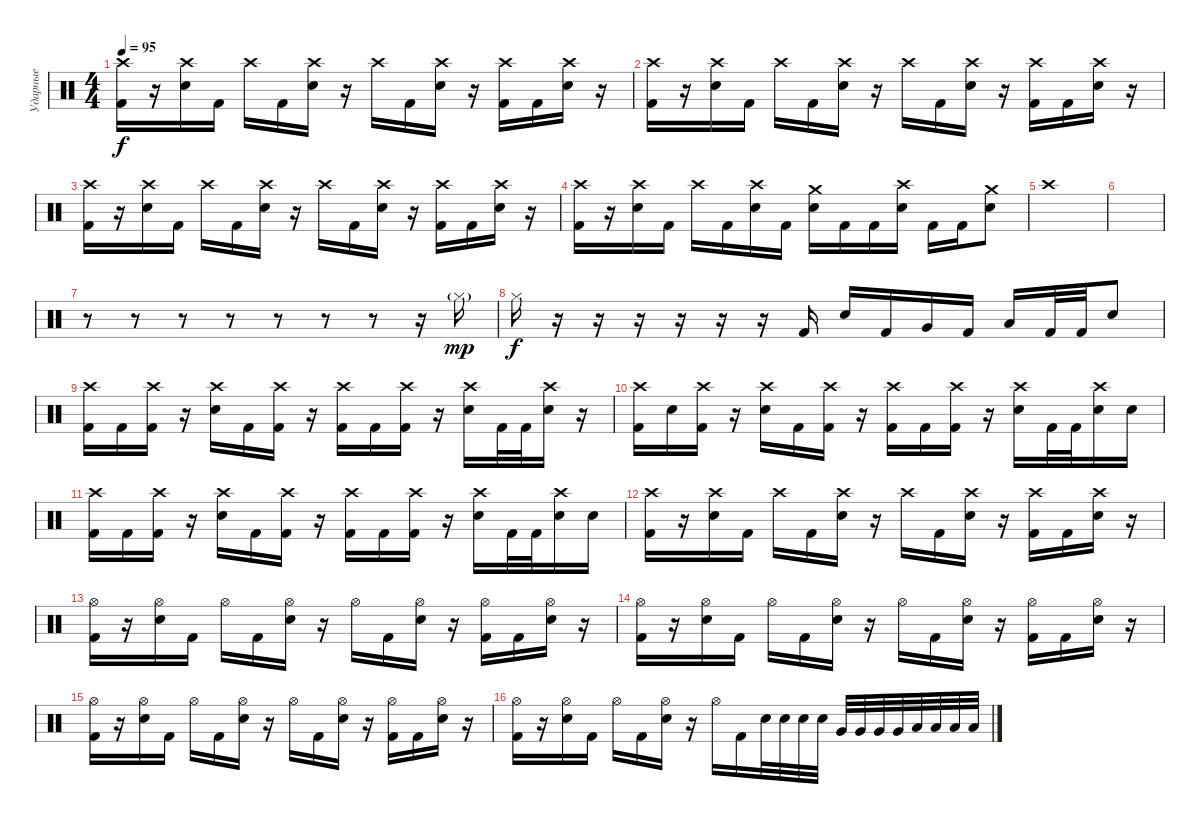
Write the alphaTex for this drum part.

\track ("Ударные" "Ударные") {instrument percussion}
\staff {score}
\articulation defaults
\ts (4 4)
\tempo 95
\clef neutral
\ks c
("Crash high (hit)" "Kick (hit) 2").16{dy f} r.16 ("Crash high (hit)" "Electric Snare (hit)").16 "Kick (hit) 2".16 "Crash high (hit)".16 "Kick (hit) 2".16 ("Crash high (hit)" "Electric Snare (hit)").16 r.16 "Crash high (hit)".16 "Kick (hit) 2".16 ("Crash high (hit)" "Electric Snare (hit)").16 r.16 ("Crash high (hit)" "Kick (hit) 2").16 "Kick (hit) 2".16 ("Crash high (hit)" "Electric Snare (hit)").16 r.16 |
("Crash high (hit)" "Kick (hit) 2").16 r.16 ("Crash high (hit)" "Electric Snare (hit)").16 "Kick (hit) 2".16 "Crash high (hit)".16 "Kick (hit) 2".16 ("Crash high (hit)" "Electric Snare (hit)").16 r.16 "Crash high (hit)".16 "Kick (hit) 2".16 ("Crash high (hit)" "Electric Snare (hit)").16 r.16 ("Crash high (hit)" "Kick (hit) 2").16 "Kick (hit) 2".16 ("Crash high (hit)" "Electric Snare (hit)").16 r.16 |
("Crash high (hit)" "Kick (hit) 2").16 r.16 ("Crash high (hit)" "Electric Snare (hit)").16 "Kick (hit) 2".16 "Crash high (hit)".16 "Kick (hit) 2".16 ("Crash high (hit)" "Electric Snare (hit)").16 r.16 "Crash high (hit)".16 "Kick (hit) 2".16 ("Crash high (hit)" "Electric Snare (hit)").16 r.16 ("Crash high (hit)" "Kick (hit) 2").16 "Kick (hit) 2".16 ("Crash high (hit)" "Electric Snare (hit)").16 r.16 |
("Crash high (hit)" "Kick (hit) 2").16 r.16 ("Crash high (hit)" "Electric Snare (hit)").16 "Kick (hit) 2".16 "Crash high (hit)".16 "Kick (hit) 2".16 ("Crash high (hit)" "Electric Snare (hit)").16 "Kick (hit) 2".16 ("Crash medium (hit)" "Electric Snare (hit)").16 "Kick (hit) 2".16 "Kick (hit) 2".16 ("Crash high (hit)" "Electric Snare (hit)").16 "Kick (hit) 2".16 "Kick (hit) 2".16 ("Crash medium (hit)" "Electric Snare (hit)").8 |
"Crash high (hit)".1 |
|
r.8 r.8 r.8 r.8 r.8 r.8 r.8 r.16 "Hi-Hat (closed)"{g}.16{dy mp} |
"Hi-Hat (closed)".16{dy f} r.16 r.16 r.16 r.16 r.16 r.16 "Kick (hit) 2".16 "Electric Snare (hit)".16 "Kick (hit) 2".16 "Very Low Tom (hit)".16 "Kick (hit) 2".16 "Low Floor Tom (hit)".16 "Kick (hit) 2".32 "Kick (hit) 2".32 "Electric Snare (hit)".8 |
("Crash high (hit)" "Kick (hit) 2").16 "Kick (hit) 2".16 ("Crash high (hit)" "Kick (hit) 2").16 r.16 ("Crash high (hit)" "Electric Snare (hit)").16 "Kick (hit) 2".16 ("Crash high (hit)" "Kick (hit) 2").16 r.16 ("Crash high (hit)" "Kick (hit) 2").16 "Kick (hit) 2".16 ("Crash high (hit)" "Kick (hit) 2").16 r.16 ("Crash high (hit)" "Electric Snare (hit)").16 "Kick (hit) 2".32 "Kick (hit) 2".32 ("Crash high (hit)" "Electric Snare (hit)").16 r.16 |
("Crash high (hit)" "Kick (hit) 2").16 "Electric Snare (hit)".16 ("Crash high (hit)" "Kick (hit) 2").16 r.16 ("Crash high (hit)" "Electric Snare (hit)").16 "Kick (hit) 2".16 ("Crash high (hit)" "Kick (hit) 2").16 r.16 ("Crash high (hit)" "Kick (hit) 2").16 "Kick (hit) 2".16 ("Crash high (hit)" "Kick (hit) 2").16 r.16 ("Crash high (hit)" "Electric Snare (hit)").16 "Kick (hit) 2".32 "Kick (hit) 2".32 ("Crash high (hit)" "Electric Snare (hit)").16 "Electric Snare (hit)".16 |
("Crash high (hit)" "Kick (hit) 2").16 "Kick (hit) 2".16 ("Crash high (hit)" "Kick (hit) 2").16 r.16 ("Crash high (hit)" "Electric Snare (hit)").16 "Kick (hit) 2".16 ("Crash high (hit)" "Kick (hit) 2").16 r.16 ("Crash high (hit)" "Kick (hit) 2").16 "Kick (hit) 2".16 ("Crash high (hit)" "Kick (hit) 2").16 r.16 ("Crash high (hit)" "Electric Snare (hit)").16 "Kick (hit) 2".32 "Kick (hit) 2".32 ("Crash high (hit)" "Electric Snare (hit)").16 "Electric Snare (hit)".16 |
("Crash high (hit)" "Kick (hit) 2").16 r.16 ("Crash high (hit)" "Electric Snare (hit)").16 "Kick (hit) 2".16 "Crash high (hit)".16 "Kick (hit) 2".16 ("Crash high (hit)" "Electric Snare (hit)").16 r.16 "Crash high (hit)".16 "Kick (hit) 2".16 ("Crash high (hit)" "Electric Snare (hit)").16 r.16 ("Crash high (hit)" "Kick (hit) 2").16 "Kick (hit) 2".16 ("Crash high (hit)" "Electric Snare (hit)").16 r.16 |
("Hi-Hat (open)" "Kick (hit) 2").16 r.16 ("Hi-Hat (open)" "Electric Snare (hit)").16 "Kick (hit) 2".16 "Hi-Hat (open)".16 "Kick (hit) 2".16 ("Hi-Hat (open)" "Electric Snare (hit)").16 r.16 "Hi-Hat (open)".16 "Kick (hit) 2".16 ("Hi-Hat (open)" "Electric Snare (hit)").16 r.16 ("Hi-Hat (open)" "Kick (hit) 2").16 "Kick (hit) 2".16 ("Hi-Hat (open)" "Electric Snare (hit)").16 r.16 |
("Hi-Hat (open)" "Kick (hit) 2").16 r.16 ("Hi-Hat (open)" "Electric Snare (hit)").16 "Kick (hit) 2".16 "Hi-Hat (open)".16 "Kick (hit) 2".16 ("Hi-Hat (open)" "Electric Snare (hit)").16 r.16 "Hi-Hat (open)".16 "Kick (hit) 2".16 ("Hi-Hat (open)" "Electric Snare (hit)").16 r.16 ("Hi-Hat (open)" "Kick (hit) 2").16 "Kick (hit) 2".16 ("Hi-Hat (open)" "Electric Snare (hit)").16 r.16 |
("Hi-Hat (open)" "Kick (hit) 2").16 r.16 ("Hi-Hat (open)" "Electric Snare (hit)").16 "Kick (hit) 2".16 "Hi-Hat (open)".16 "Kick (hit) 2".16 ("Hi-Hat (open)" "Electric Snare (hit)").16 r.16 "Hi-Hat (open)".16 "Kick (hit) 2".16 ("Hi-Hat (open)" "Electric Snare (hit)").16 r.16 ("Hi-Hat (open)" "Kick (hit) 2").16 "Kick (hit) 2".16 ("Hi-Hat (open)" "Electric Snare (hit)").16 r.16 |
("Hi-Hat (open)" "Kick (hit) 2").16 r.16 ("Hi-Hat (open)" "Electric Snare (hit)").16 "Kick (hit) 2".16 "Hi-Hat (open)".16 "Kick (hit) 2".16 ("Hi-Hat (open)" "Electric Snare (hit)").16 r.16 "Hi-Hat (open)".16 "Kick (hit) 2".16 "Electric Snare (hit)".32 "Electric Snare (hit)".32 "Electric Snare (hit)".32 "Electric Snare (hit)".32 "Very Low Tom (hit)".32 "Very Low Tom (hit)".32 "Very Low Tom (hit)".32 "Very Low Tom (hit)".32 "Low Floor Tom (hit)".32 "Low Floor Tom (hit)".32 "Low Floor Tom (hit)".32 "Low Floor Tom (hit)".32
